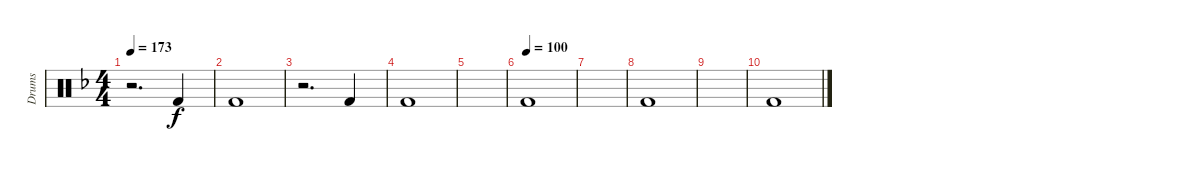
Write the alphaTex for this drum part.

\track ("Drums" "Drums") {instrument percussion}
\staff {score}
\articulation defaults
\ts (4 4)
\tempo 173
\clef neutral
\ks dminor
r.2{d dy f} "Kick (hit) 2".4 |
"Kick (hit) 2".1 |
r.2{d} "Kick (hit) 2".4 |
"Kick (hit) 2".1 |
|
\tempo (100)
"Kick (hit) 2".1 |
|
"Kick (hit) 2".1 |
|
"Kick (hit) 2".1
